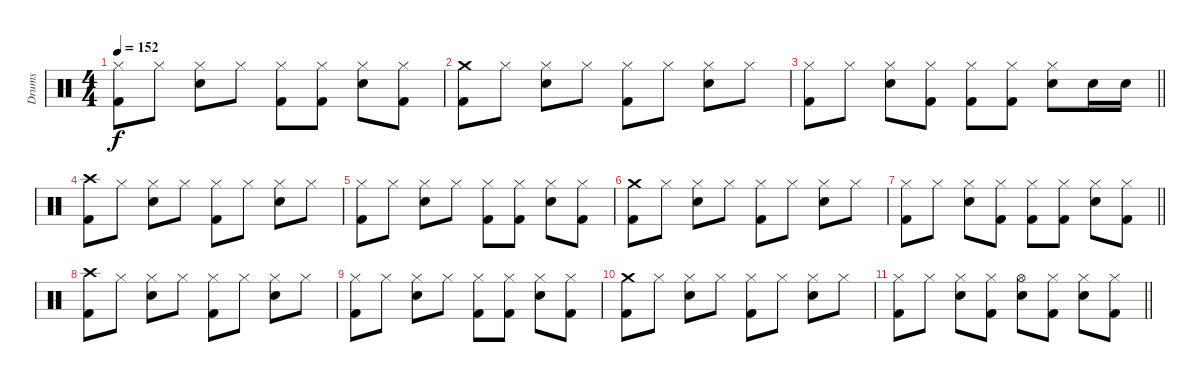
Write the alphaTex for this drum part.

\track ("Drums" "Drums") {instrument percussion}
\staff
\articulation defaults
\ts (4 4)
\tempo 152
\clef neutral
\ks c
("Hi-Hat (closed)" "Kick (hit) 2").8{dy f} "Hi-Hat (closed)".8 ("Hi-Hat (closed)" "Electric Snare (hit)").8 "Hi-Hat (closed)".8 ("Hi-Hat (closed)" "Kick (hit) 2").8 ("Hi-Hat (closed)" "Kick (hit) 2").8 ("Hi-Hat (closed)" "Electric Snare (hit)").8 ("Hi-Hat (closed)" "Kick (hit) 2").8 |
("Crash medium (hit)" "Kick (hit) 2").8 "Hi-Hat (closed)".8 ("Hi-Hat (closed)" "Electric Snare (hit)").8 "Hi-Hat (closed)".8 ("Hi-Hat (closed)" "Kick (hit) 2").8 "Hi-Hat (closed)".8 ("Hi-Hat (closed)" "Electric Snare (hit)").8 "Hi-Hat (closed)".8 |
\barLineRight lightlight
("Hi-Hat (closed)" "Kick (hit) 2").8 "Hi-Hat (closed)".8 ("Hi-Hat (closed)" "Electric Snare (hit)").8 ("Hi-Hat (closed)" "Kick (hit) 2").8 ("Hi-Hat (closed)" "Kick (hit) 2").8 ("Hi-Hat (closed)" "Kick (hit) 2").8 ("Hi-Hat (closed)" "Electric Snare (hit)").8 "Electric Snare (hit)".16 "Electric Snare (hit)".16 |
("Crash high (hit)" "Kick (hit) 2").8 "Hi-Hat (closed)".8 ("Hi-Hat (closed)" "Electric Snare (hit)").8 "Hi-Hat (closed)".8 ("Hi-Hat (closed)" "Kick (hit) 2").8 "Hi-Hat (closed)".8 ("Hi-Hat (closed)" "Electric Snare (hit)").8 "Hi-Hat (closed)".8 |
("Hi-Hat (closed)" "Kick (hit) 2").8 "Hi-Hat (closed)".8 ("Hi-Hat (closed)" "Electric Snare (hit)").8 "Hi-Hat (closed)".8 ("Hi-Hat (closed)" "Kick (hit) 2").8 ("Hi-Hat (closed)" "Kick (hit) 2").8 ("Hi-Hat (closed)" "Electric Snare (hit)").8 ("Hi-Hat (closed)" "Kick (hit) 2").8 |
("Crash medium (hit)" "Kick (hit) 2").8 "Hi-Hat (closed)".8 ("Hi-Hat (closed)" "Electric Snare (hit)").8 "Hi-Hat (closed)".8 ("Hi-Hat (closed)" "Kick (hit) 2").8 "Hi-Hat (closed)".8 ("Hi-Hat (closed)" "Electric Snare (hit)").8 "Hi-Hat (closed)".8 |
\barLineRight lightlight
("Hi-Hat (closed)" "Kick (hit) 2").8 "Hi-Hat (closed)".8 ("Hi-Hat (closed)" "Electric Snare (hit)").8 ("Hi-Hat (closed)" "Kick (hit) 2").8 ("Hi-Hat (closed)" "Kick (hit) 2").8 ("Hi-Hat (closed)" "Kick (hit) 2").8 ("Hi-Hat (closed)" "Electric Snare (hit)").8 ("Hi-Hat (closed)" "Kick (hit) 2").8 |
("Crash high (hit)" "Kick (hit) 2").8 "Hi-Hat (closed)".8 ("Hi-Hat (closed)" "Electric Snare (hit)").8 "Hi-Hat (closed)".8 ("Hi-Hat (closed)" "Kick (hit) 2").8 "Hi-Hat (closed)".8 ("Hi-Hat (closed)" "Electric Snare (hit)").8 "Hi-Hat (closed)".8 |
("Hi-Hat (closed)" "Kick (hit) 2").8 "Hi-Hat (closed)".8 ("Hi-Hat (closed)" "Electric Snare (hit)").8 "Hi-Hat (closed)".8 ("Hi-Hat (closed)" "Kick (hit) 2").8 ("Hi-Hat (closed)" "Kick (hit) 2").8 ("Hi-Hat (closed)" "Electric Snare (hit)").8 ("Hi-Hat (closed)" "Kick (hit) 2").8 |
("Crash medium (hit)" "Kick (hit) 2").8 "Hi-Hat (closed)".8 ("Hi-Hat (closed)" "Electric Snare (hit)").8 "Hi-Hat (closed)".8 ("Hi-Hat (closed)" "Kick (hit) 2").8 "Hi-Hat (closed)".8 ("Hi-Hat (closed)" "Electric Snare (hit)").8 "Hi-Hat (closed)".8 |
\barLineRight lightlight
("Hi-Hat (closed)" "Kick (hit) 2").8 "Hi-Hat (closed)".8 ("Hi-Hat (closed)" "Electric Snare (hit)").8 ("Hi-Hat (closed)" "Kick (hit) 2").8 ("Hi-Hat (open)" "Electric Snare (hit)").8 ("Hi-Hat (closed)" "Kick (hit) 2").8 ("Hi-Hat (closed)" "Electric Snare (hit)").8 ("Hi-Hat (closed)" "Kick (hit) 2").8
